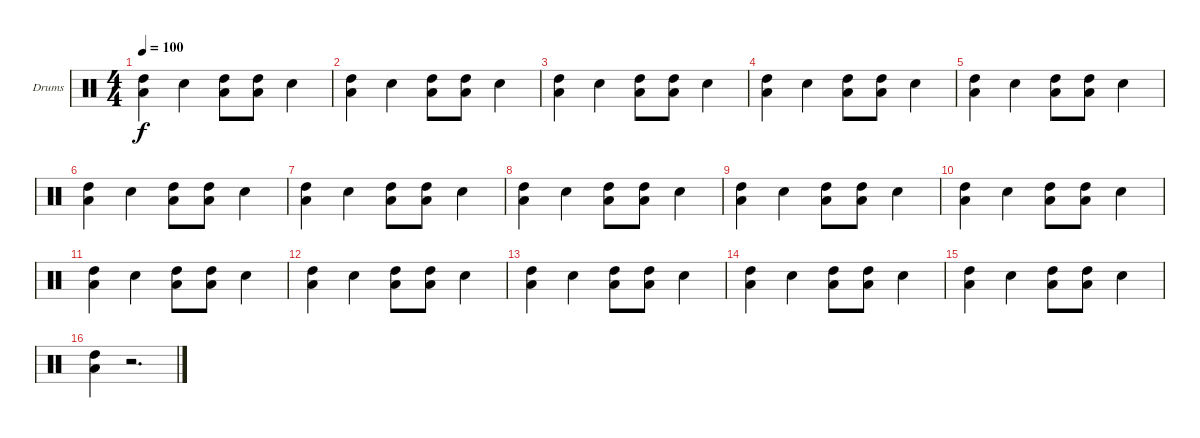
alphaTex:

\bracketExtendMode groupsimilarinstruments
\firstSystemTrackNameOrientation horizontal
\otherSystemsTrackNameOrientation horizontal
\track ("Drumkit" "Drums") {instrument percussion}
\staff {score}
\articulation defaults
\ts (4 4)
\tempo 100
\clef neutral
\ks c
("High Tom (hit)" "Low Tom (hit)").4{dy f} "Snare (hit) 2".4 ("High Tom (hit)" "Low Tom (hit)").8 ("High Tom (hit)" "Low Tom (hit)").8 "Snare (hit) 2".4 |
("High Tom (hit)" "Low Tom (hit)").4 "Snare (hit) 2".4 ("High Tom (hit)" "Low Tom (hit)").8 ("High Tom (hit)" "Low Tom (hit)").8 "Snare (hit) 2".4 |
("High Tom (hit)" "Low Tom (hit)").4 "Snare (hit) 2".4 ("High Tom (hit)" "Low Tom (hit)").8 ("High Tom (hit)" "Low Tom (hit)").8 "Snare (hit) 2".4 |
("High Tom (hit)" "Low Tom (hit)").4 "Snare (hit) 2".4 ("High Tom (hit)" "Low Tom (hit)").8 ("High Tom (hit)" "Low Tom (hit)").8 "Snare (hit) 2".4 |
("High Tom (hit)" "Low Tom (hit)").4 "Snare (hit) 2".4 ("High Tom (hit)" "Low Tom (hit)").8 ("High Tom (hit)" "Low Tom (hit)").8 "Snare (hit) 2".4 |
("High Tom (hit)" "Low Tom (hit)").4 "Snare (hit) 2".4 ("High Tom (hit)" "Low Tom (hit)").8 ("High Tom (hit)" "Low Tom (hit)").8 "Snare (hit) 2".4 |
("High Tom (hit)" "Low Tom (hit)").4 "Snare (hit) 2".4 ("High Tom (hit)" "Low Tom (hit)").8 ("High Tom (hit)" "Low Tom (hit)").8 "Snare (hit) 2".4 |
("High Tom (hit)" "Low Tom (hit)").4 "Snare (hit) 2".4 ("High Tom (hit)" "Low Tom (hit)").8 ("High Tom (hit)" "Low Tom (hit)").8 "Snare (hit) 2".4 |
("High Tom (hit)" "Low Tom (hit)").4 "Snare (hit) 2".4 ("High Tom (hit)" "Low Tom (hit)").8 ("High Tom (hit)" "Low Tom (hit)").8 "Snare (hit) 2".4 |
("High Tom (hit)" "Low Tom (hit)").4 "Snare (hit) 2".4 ("High Tom (hit)" "Low Tom (hit)").8 ("High Tom (hit)" "Low Tom (hit)").8 "Snare (hit) 2".4 |
("High Tom (hit)" "Low Tom (hit)").4 "Snare (hit) 2".4 ("High Tom (hit)" "Low Tom (hit)").8 ("High Tom (hit)" "Low Tom (hit)").8 "Snare (hit) 2".4 |
("High Tom (hit)" "Low Tom (hit)").4 "Snare (hit) 2".4 ("High Tom (hit)" "Low Tom (hit)").8 ("High Tom (hit)" "Low Tom (hit)").8 "Snare (hit) 2".4 |
("High Tom (hit)" "Low Tom (hit)").4 "Snare (hit) 2".4 ("High Tom (hit)" "Low Tom (hit)").8 ("High Tom (hit)" "Low Tom (hit)").8 "Snare (hit) 2".4 |
("High Tom (hit)" "Low Tom (hit)").4 "Snare (hit) 2".4 ("High Tom (hit)" "Low Tom (hit)").8 ("High Tom (hit)" "Low Tom (hit)").8 "Snare (hit) 2".4 |
("High Tom (hit)" "Low Tom (hit)").4 "Snare (hit) 2".4 ("High Tom (hit)" "Low Tom (hit)").8 ("High Tom (hit)" "Low Tom (hit)").8 "Snare (hit) 2".4 |
("High Tom (hit)" "Low Tom (hit)").4 r.2{d}
